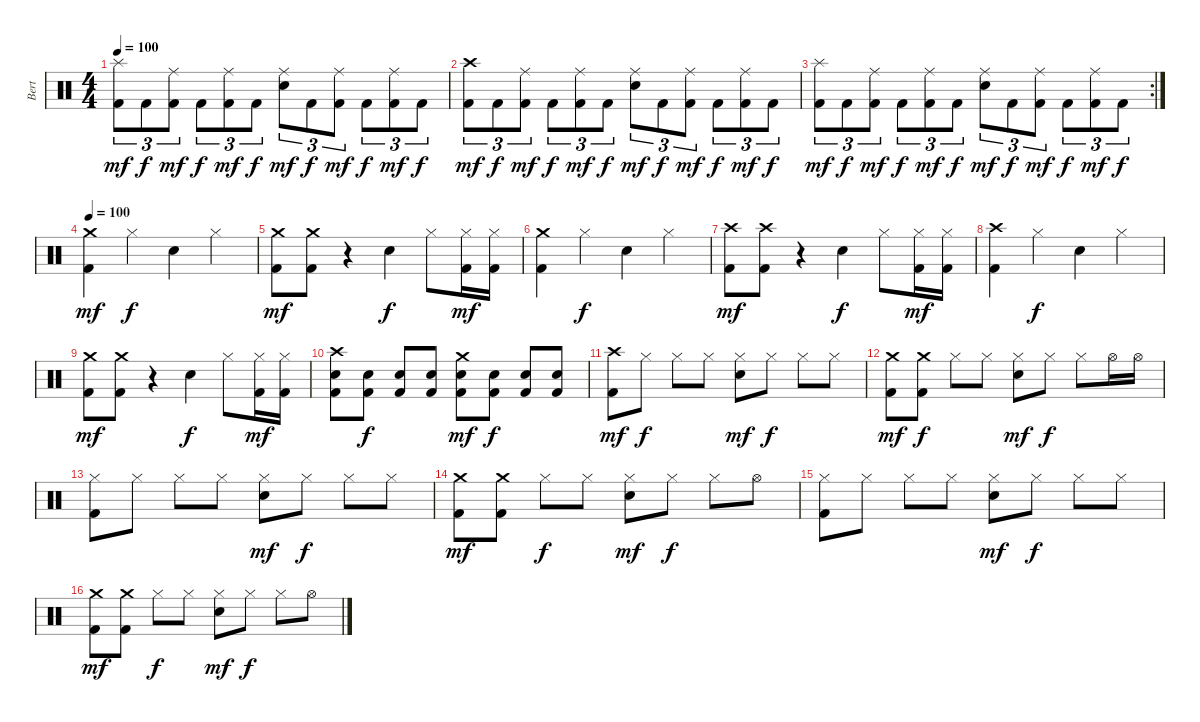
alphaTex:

\track ("Bert" "Bert") {instrument percussion}
\staff {score}
\articulation defaults
\ts (4 4)
\tempo 100
\clef neutral
\ks c
("Splash (hit)" "Kick (hit) 2").8{tu (3 2) dy mf} "Kick (hit) 2".8{tu (3 2) dy f} ("Ride (middle)" "Kick (hit) 2").8{tu (3 2) dy mf} "Kick (hit) 2".8{tu (3 2) dy f} ("Ride (middle)" "Kick (hit) 2").8{tu (3 2) dy mf} "Kick (hit) 2".8{tu (3 2) dy f} ("Ride (middle)" "Snare (hit) 2").8{tu (3 2) dy mf} "Kick (hit) 2".8{tu (3 2) dy f} ("Ride (middle)" "Kick (hit) 2").8{tu (3 2) dy mf} "Kick (hit) 2".8{tu (3 2) dy f} ("Ride (middle)" "Kick (hit) 2").8{tu (3 2) dy mf} "Kick (hit) 2".8{tu (3 2) dy f} |
("Crash high (hit)" "Kick (hit) 2").8{tu (3 2) dy mf} "Kick (hit) 2".8{tu (3 2) dy f} ("Ride (middle)" "Kick (hit) 2").8{tu (3 2) dy mf} "Kick (hit) 2".8{tu (3 2) dy f} ("Ride (middle)" "Kick (hit) 2").8{tu (3 2) dy mf} "Kick (hit) 2".8{tu (3 2) dy f} ("Ride (middle)" "Snare (hit) 2").8{tu (3 2) dy mf} "Kick (hit) 2".8{tu (3 2) dy f} ("Ride (middle)" "Kick (hit) 2").8{tu (3 2) dy mf} "Kick (hit) 2".8{tu (3 2) dy f} ("Ride (middle)" "Kick (hit) 2").8{tu (3 2) dy mf} "Kick (hit) 2".8{tu (3 2) dy f} |
\rc 2
("Splash (hit)" "Kick (hit) 2").8{tu (3 2) dy mf} "Kick (hit) 2".8{tu (3 2) dy f} ("Ride (middle)" "Kick (hit) 2").8{tu (3 2) dy mf} "Kick (hit) 2".8{tu (3 2) dy f} ("Ride (middle)" "Kick (hit) 2").8{tu (3 2) dy mf} "Kick (hit) 2".8{tu (3 2) dy f} ("Ride (middle)" "Snare (hit) 2").8{tu (3 2) dy mf} "Kick (hit) 2".8{tu (3 2) dy f} ("Ride (middle)" "Kick (hit) 2").8{tu (3 2) dy mf} "Kick (hit) 2".8{tu (3 2) dy f} ("Ride (middle)" "Kick (hit) 2").8{tu (3 2) dy mf} "Kick (hit) 2".8{tu (3 2) dy f} |
\tempo 100
("Crash medium (hit)" "Kick (hit) 2").4{dy mf} "Hi-Hat (closed)".4{dy f} "Snare (hit) 2".4 "Hi-Hat (closed)".4 |
("Crash medium (hit)" "Kick (hit) 2").8{dy mf} ("Crash medium (hit)" "Kick (hit) 2").8 r.4 "Snare (hit) 2".4{dy f} "Hi-Hat (closed)".8 ("Hi-Hat (closed)" "Kick (hit) 2").16{dy mf} ("Hi-Hat (closed)" "Kick (hit) 2").16 |
("Crash medium (hit)" "Kick (hit) 2").4 "Hi-Hat (closed)".4{dy f} "Snare (hit) 2".4 "Hi-Hat (closed)".4 |
("Crash high (hit)" "Kick (hit) 2").8{dy mf} ("Crash high (hit)" "Kick (hit) 2").8 r.4 "Snare (hit) 2".4{dy f} "Hi-Hat (closed)".8 ("Hi-Hat (closed)" "Kick (hit) 2").16{dy mf} ("Hi-Hat (closed)" "Kick (hit) 2").16 |
("Crash high (hit)" "Kick (hit) 2").4 "Hi-Hat (closed)".4{dy f} "Snare (hit) 2".4 "Hi-Hat (closed)".4 |
("Crash medium (hit)" "Kick (hit) 2").8{dy mf} ("Crash medium (hit)" "Kick (hit) 2").8 r.4 "Snare (hit) 2".4{dy f} "Hi-Hat (closed)".8 ("Hi-Hat (closed)" "Kick (hit) 2").16{dy mf} ("Hi-Hat (closed)" "Kick (hit) 2").16 |
("Crash high (hit)" "Snare (hit) 2" "Kick (hit) 2").8 ("Snare (hit) 2" "Kick (hit) 2").8{dy f} ("Snare (hit) 2" "Kick (hit) 2").8 ("Snare (hit) 2" "Kick (hit) 2").8 ("Crash medium (hit)" "Snare (hit) 2" "Kick (hit) 2").8{dy mf} ("Snare (hit) 2" "Kick (hit) 2").8{dy f} ("Snare (hit) 2" "Kick (hit) 2").8 ("Snare (hit) 2" "Kick (hit) 2").8 |
("Crash high (hit)" "Kick (hit) 2").8{dy mf} "Hi-Hat (closed)".8{dy f} "Hi-Hat (closed)".8 "Hi-Hat (closed)".8 ("Hi-Hat (closed)" "Snare (hit) 2").8{dy mf} "Hi-Hat (closed)".8{dy f} "Hi-Hat (closed)".8 "Hi-Hat (closed)".8 |
("Crash medium (hit)" "Kick (hit) 2").8{dy mf} ("Crash medium (hit)" "Kick (hit) 2").8{dy f} "Hi-Hat (closed)".8 "Hi-Hat (closed)".8 ("Hi-Hat (closed)" "Snare (hit) 2").8{dy mf} "Hi-Hat (closed)".8{dy f} "Hi-Hat (closed)".8 "Hi-Hat (open)".16 "Hi-Hat (open)".16 |
("Hi-Hat (closed)" "Kick (hit) 2").8 "Hi-Hat (closed)".8 "Hi-Hat (closed)".8 "Hi-Hat (closed)".8 ("Hi-Hat (closed)" "Snare (hit) 2").8{dy mf} "Hi-Hat (closed)".8{dy f} "Hi-Hat (closed)".8 "Hi-Hat (closed)".8 |
("Crash medium (hit)" "Kick (hit) 2").8{dy mf} ("Crash medium (hit)" "Kick (hit) 2").8 "Hi-Hat (closed)".8{dy f} "Hi-Hat (closed)".8 ("Hi-Hat (closed)" "Snare (hit) 2").8{dy mf} "Hi-Hat (closed)".8{dy f} "Hi-Hat (closed)".8 "Hi-Hat (open)".8 |
("Hi-Hat (closed)" "Kick (hit) 2").8 "Hi-Hat (closed)".8 "Hi-Hat (closed)".8 "Hi-Hat (closed)".8 ("Hi-Hat (closed)" "Snare (hit) 2").8{dy mf} "Hi-Hat (closed)".8{dy f} "Hi-Hat (closed)".8 "Hi-Hat (closed)".8 |
("Crash medium (hit)" "Kick (hit) 2").8{dy mf} ("Crash medium (hit)" "Kick (hit) 2").8 "Hi-Hat (closed)".8{dy f} "Hi-Hat (closed)".8 ("Hi-Hat (closed)" "Snare (hit) 2").8{dy mf} "Hi-Hat (closed)".8{dy f} "Hi-Hat (closed)".8 "Hi-Hat (open)".8
